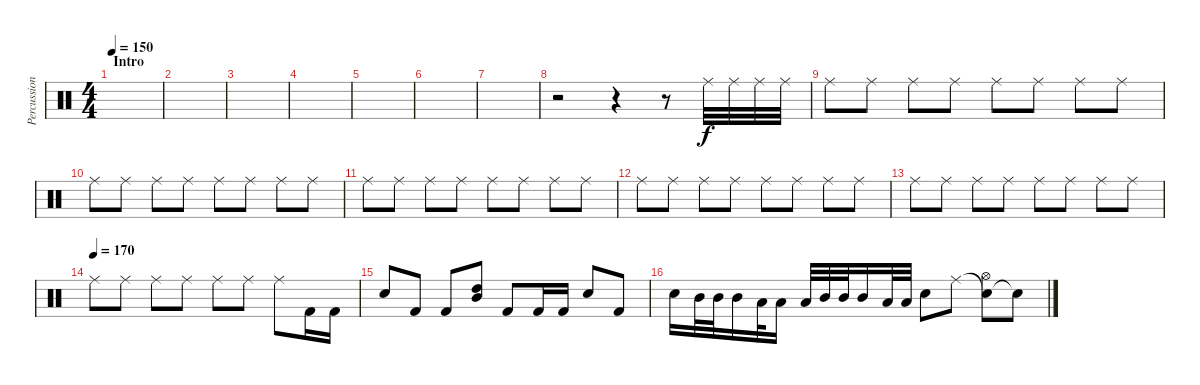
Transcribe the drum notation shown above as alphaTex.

\track ("Percussion" "Percussion") {instrument percussion}
\staff {score}
\articulation defaults
\ts (4 4)
\section ("" "Intro")
\tempo 150
\clef neutral
\ks c
|
|
|
|
|
|
|
r.2 r.4 r.8 "Ride (middle)".32 "Ride (middle)".32 "Ride (middle)".32 "Ride (middle)".32 |
"Ride (middle)".8 "Ride (middle)".8 "Ride (middle)".8 "Ride (middle)".8 "Ride (middle)".8 "Ride (middle)".8 "Ride (middle)".8 "Ride (middle)".8 |
"Ride (middle)".8 "Ride (middle)".8 "Ride (middle)".8 "Ride (middle)".8 "Ride (middle)".8 "Ride (middle)".8 "Ride (middle)".8 "Ride (middle)".8 |
"Ride (middle)".8 "Ride (middle)".8 "Ride (middle)".8 "Ride (middle)".8 "Ride (middle)".8 "Ride (middle)".8 "Ride (middle)".8 "Ride (middle)".8 |
"Ride (middle)".8 "Ride (middle)".8 "Ride (middle)".8 "Ride (middle)".8 "Ride (middle)".8 "Ride (middle)".8 "Ride (middle)".8 "Ride (middle)".8 |
"Ride (middle)".8 "Ride (middle)".8 "Ride (middle)".8 "Ride (middle)".8 "Ride (middle)".8 "Ride (middle)".8 "Ride (middle)".8 "Ride (middle)".8 |
\tempo (170)
"Ride (middle)".8 "Ride (middle)".8 "Ride (middle)".8 "Ride (middle)".8 "Ride (middle)".8 "Ride (middle)".8 "Ride (middle)".8 "Kick (hit) 2".16 "Kick (hit) 2".16 |
"Electric Snare (hit)".8 "Kick (hit) 2".8 "Kick (hit) 2".8 ("Mid Tom (hit)" "High Tom (hit)").8 "Kick (hit) 2".8 "Kick (hit) 2".16 "Kick (hit) 2".16 "Electric Snare (hit)".8 "Kick (hit) 2".8 |
"Electric Snare (hit)".16 "Mid Tom (hit)".32 "Mid Tom (hit)".32 "Mid Tom (hit)".16 "Low Tom (hit)".32 "Low Tom (hit)".16 "Low Tom (hit)".32 "Mid Tom (hit)".32 "Mid Tom (hit)".32 "Mid Tom (hit)".16 "Low Tom (hit)".32 "Low Tom (hit)".32 "Electric Snare (hit)".8 "Ride (middle)".8 ("Snare (hit)"{t} "Hi-Hat (open)").8 "Snare (hit)"{t}.8
